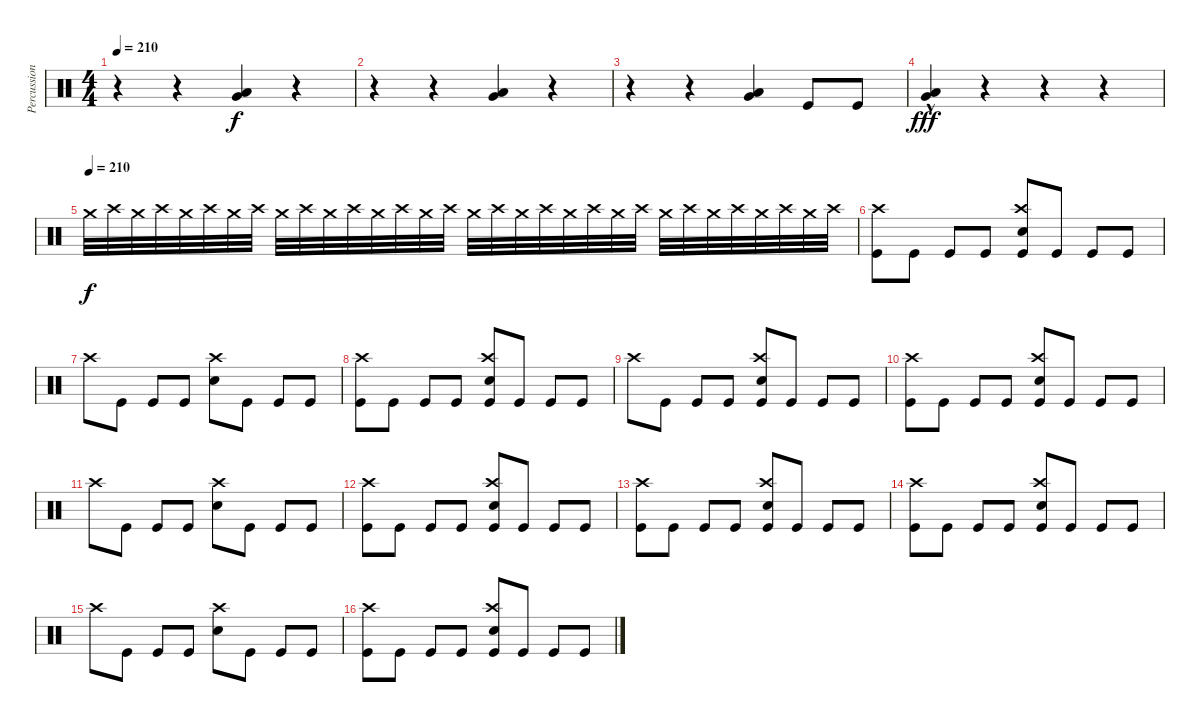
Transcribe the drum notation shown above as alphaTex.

\track ("Percussion" "Percussion") {instrument percussion}
\staff {score}
\articulation defaults
\ts (4 4)
\tempo 210
\clef neutral
\ks c
r.4{dy f} r.4 ("Low Tom (hit)" "Very Low Tom (hit)").4 r.4 |
r.4 r.4 ("Low Tom (hit)" "Very Low Tom (hit)").4 r.4 |
r.4 r.4 ("Low Tom (hit)" "Very Low Tom (hit)").4 "Kick (hit)".8 "Kick (hit)".8 |
("Low Tom (hit)"{hac} "Very Low Tom (hit)"{hac}).4{dy fff} r.4 r.4{volume 0} r.4 |
\tempo (210)
"Crash medium (hit)".32{dy f volume 9} "Crash high (hit)".32 "Crash medium (hit)".32 "Crash high (hit)".32 "Crash medium (hit)".32 "Crash high (hit)".32 "Crash medium (hit)".32 "Crash high (hit)".32 "Crash medium (hit)".32 "Crash high (hit)".32 "Crash medium (hit)".32 "Crash high (hit)".32 "Crash medium (hit)".32 "Crash high (hit)".32 "Crash medium (hit)".32 "Crash high (hit)".32 "Crash medium (hit)".32 "Crash high (hit)".32 "Crash medium (hit)".32 "Crash high (hit)".32 "Crash medium (hit)".32 "Crash high (hit)".32 "Crash medium (hit)".32 "Crash high (hit)".32 "Crash medium (hit)".32 "Crash high (hit)".32 "Crash medium (hit)".32 "Crash high (hit)".32 "Crash medium (hit)".32 "Crash high (hit)".32 "Crash medium (hit)".32 "Crash high (hit)".32 |
("Crash high (hit)" "Kick (hit)").8{volume 13} "Kick (hit)".8 "Kick (hit)".8 "Kick (hit)".8 ("Crash high (hit)" "Snare (hit) 2" "Kick (hit)").8 "Kick (hit)".8 "Kick (hit)".8 "Kick (hit)".8 |
"Crash high (hit)".8 "Kick (hit)".8 "Kick (hit)".8 "Kick (hit)".8 ("Crash high (hit)" "Snare (hit) 2").8 "Kick (hit)".8 "Kick (hit)".8 "Kick (hit)".8 |
("Crash high (hit)" "Kick (hit)").8 "Kick (hit)".8 "Kick (hit)".8 "Kick (hit)".8 ("Crash high (hit)" "Snare (hit) 2" "Kick (hit)").8 "Kick (hit)".8 "Kick (hit)".8 "Kick (hit)".8 |
"Crash high (hit)".8 "Kick (hit)".8 "Kick (hit)".8 "Kick (hit)".8 ("Crash high (hit)" "Snare (hit) 2" "Kick (hit)").8 "Kick (hit)".8 "Kick (hit)".8 "Kick (hit)".8 |
("Crash high (hit)" "Kick (hit)").8 "Kick (hit)".8 "Kick (hit)".8 "Kick (hit)".8 ("Crash high (hit)" "Snare (hit) 2" "Kick (hit)").8 "Kick (hit)".8 "Kick (hit)".8 "Kick (hit)".8 |
"Crash high (hit)".8 "Kick (hit)".8 "Kick (hit)".8 "Kick (hit)".8 ("Crash high (hit)" "Snare (hit) 2").8 "Kick (hit)".8 "Kick (hit)".8 "Kick (hit)".8 |
("Crash high (hit)" "Kick (hit)").8 "Kick (hit)".8 "Kick (hit)".8 "Kick (hit)".8 ("Crash high (hit)" "Snare (hit) 2" "Kick (hit)").8 "Kick (hit)".8 "Kick (hit)".8 "Kick (hit)".8 |
("Crash high (hit)" "Kick (hit)").8 "Kick (hit)".8 "Kick (hit)".8 "Kick (hit)".8 ("Crash high (hit)" "Snare (hit) 2" "Kick (hit)").8 "Kick (hit)".8 "Kick (hit)".8 "Kick (hit)".8 |
("Crash high (hit)" "Kick (hit)").8 "Kick (hit)".8 "Kick (hit)".8 "Kick (hit)".8 ("Crash high (hit)" "Snare (hit) 2" "Kick (hit)").8 "Kick (hit)".8 "Kick (hit)".8 "Kick (hit)".8 |
"Crash high (hit)".8 "Kick (hit)".8 "Kick (hit)".8 "Kick (hit)".8 ("Crash high (hit)" "Snare (hit) 2").8 "Kick (hit)".8 "Kick (hit)".8 "Kick (hit)".8 |
("Crash high (hit)" "Kick (hit)").8 "Kick (hit)".8 "Kick (hit)".8 "Kick (hit)".8 ("Crash high (hit)" "Snare (hit) 2" "Kick (hit)").8 "Kick (hit)".8 "Kick (hit)".8 "Kick (hit)".8
